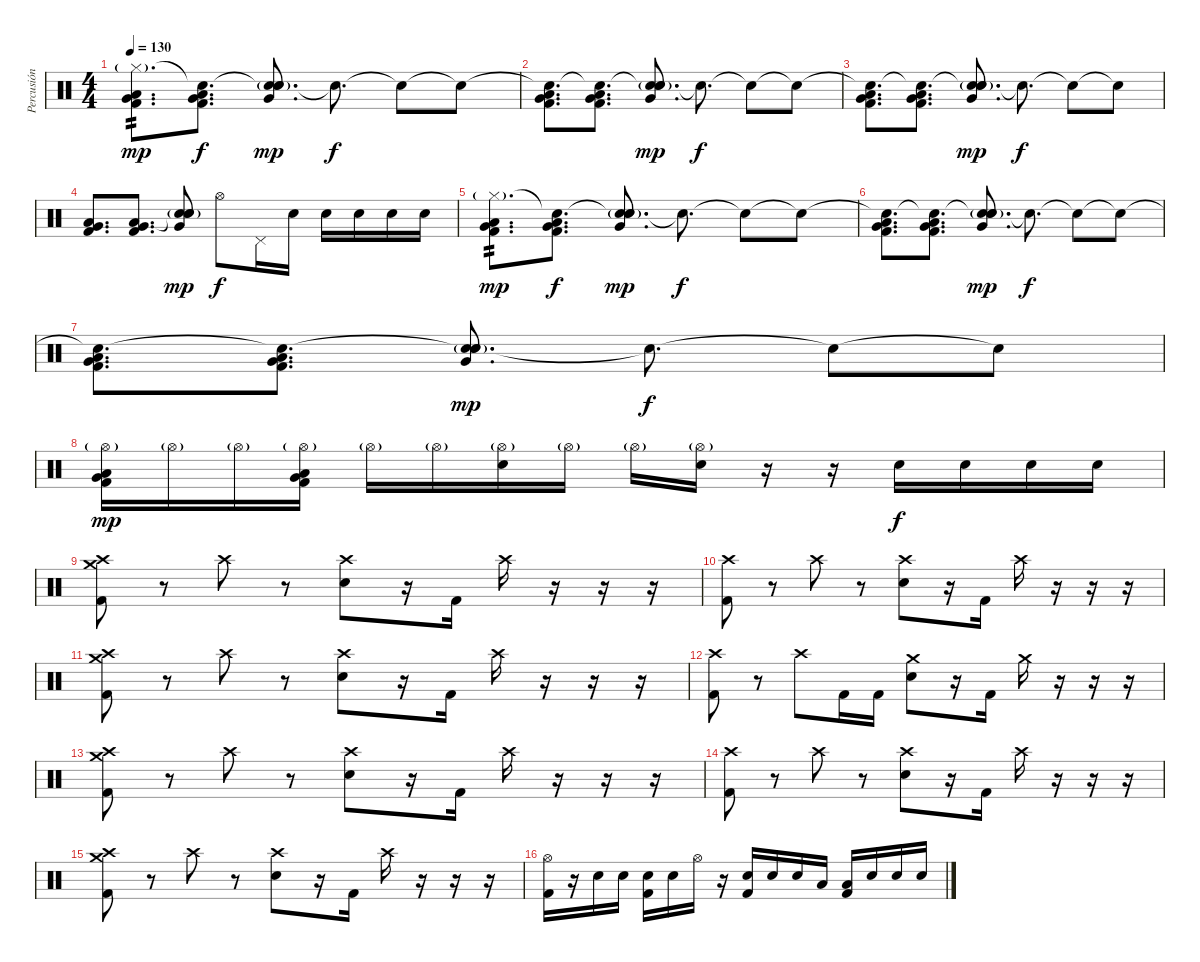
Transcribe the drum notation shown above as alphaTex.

\track ("Percusión" "Percusión") {instrument percussion}
\staff {score}
\articulation defaults
\ts (4 4)
\tempo 130
\clef neutral
\ks c
("Hi-Hat (closed)"{g} "Low Floor Tom (hit)" "Very Low Tom (hit)" "Kick (hit) 2").8{d tp 2 dy mp} ("Snare (hit)"{t} "Low Floor Tom (hit)" "Very Low Tom (hit)" "Kick (hit) 2").8{d dy f} ("Snare (hit)"{t} "Hand Clap (hit)"{g} "Very Low Tom (hit)" "Electric Snare (hit)").8{d dy mp} "Snare (hit)"{t}.8{d dy f} "Snare (hit)"{t}.8 "Snare (hit)"{t}.8 |
("Snare (hit)"{t} "Low Floor Tom (hit)" "Very Low Tom (hit)" "Kick (hit) 2").8{d} ("Snare (hit)"{t} "Low Floor Tom (hit)" "Very Low Tom (hit)" "Kick (hit) 2").8{d} ("Snare (hit)"{t} "Hand Clap (hit)"{g} "Very Low Tom (hit)" "Electric Snare (hit)").8{d dy mp} "Snare (hit)"{t}.8{d dy f} "Snare (hit)"{t}.8 "Snare (hit)"{t}.8 |
("Snare (hit)"{t} "Low Floor Tom (hit)" "Very Low Tom (hit)" "Kick (hit) 2").8{d} ("Snare (hit)"{t} "Low Floor Tom (hit)" "Very Low Tom (hit)" "Kick (hit) 2").8{d} ("Snare (hit)"{t} "Hand Clap (hit)"{g} "Very Low Tom (hit)" "Electric Snare (hit)").8{d dy mp} "Snare (hit)"{t}.8{d dy f} "Snare (hit)"{t}.8 "Snare (hit)"{t}.8 |
("Low Floor Tom (hit)" "Very Low Tom (hit)" "Kick (hit) 2").8{d} ("Low Floor Tom (hit)" "Very Low Tom (hit)" "Kick (hit) 2").8{d} ("Snare (hit)"{t} "Hand Clap (hit)"{g} "Very Low Tom (hit)" "Electric Snare (hit)").8{dy mp} "Hi-Hat (open)".8{dy f} "Pedal Hi-Hat (hit)".16 "Electric Snare (hit)".16 "Electric Snare (hit)".16 "Electric Snare (hit)".16 "Electric Snare (hit)".16 "Electric Snare (hit)".16 |
("Hi-Hat (closed)"{g} "Low Floor Tom (hit)" "Very Low Tom (hit)" "Kick (hit) 2").8{d tp 2 dy mp} ("Snare (hit)"{t} "Low Floor Tom (hit)" "Very Low Tom (hit)" "Kick (hit) 2").8{d dy f} ("Snare (hit)"{t} "Hand Clap (hit)"{g} "Very Low Tom (hit)" "Electric Snare (hit)").8{d dy mp} "Snare (hit)"{t}.8{d dy f} "Snare (hit)"{t}.8 "Snare (hit)"{t}.8 |
("Snare (hit)"{t} "Low Floor Tom (hit)" "Very Low Tom (hit)" "Kick (hit) 2").8{d} ("Snare (hit)"{t} "Low Floor Tom (hit)" "Very Low Tom (hit)" "Kick (hit) 2").8{d} ("Snare (hit)"{t} "Hand Clap (hit)"{g} "Very Low Tom (hit)" "Electric Snare (hit)").8{d dy mp} "Snare (hit)"{t}.8{d dy f} "Snare (hit)"{t}.8 "Snare (hit)"{t}.8 |
("Snare (hit)"{t} "Low Floor Tom (hit)" "Very Low Tom (hit)" "Kick (hit) 2").8{d} ("Snare (hit)"{t} "Low Floor Tom (hit)" "Very Low Tom (hit)" "Kick (hit) 2").8{d} ("Snare (hit)"{t} "Hand Clap (hit)"{g} "Very Low Tom (hit)" "Electric Snare (hit)").8{d dy mp} "Snare (hit)"{t}.8{d dy f} "Snare (hit)"{t}.8 "Snare (hit)"{t}.8 |
("Hi-Hat (open)"{g} "Low Floor Tom (hit)" "Very Low Tom (hit)" "Kick (hit) 2").16{dy mp} "Hi-Hat (open)"{g}.16 "Hi-Hat (open)"{g}.16 ("Hi-Hat (open)"{g} "Low Floor Tom (hit)" "Very Low Tom (hit)" "Kick (hit) 2").16 "Hi-Hat (open)"{g}.16 "Hi-Hat (open)"{g}.16 ("Hi-Hat (open)"{g} "Electric Snare (hit)").16 "Hi-Hat (open)"{g}.16 "Hi-Hat (open)"{g}.16 ("Hi-Hat (open)"{g} "Electric Snare (hit)").16 r.16 r.16 "Electric Snare (hit)".16{dy f} "Electric Snare (hit)".16 "Electric Snare (hit)".16 "Electric Snare (hit)".16 |
("Crash medium (hit)" "Crash high (hit)" "Kick (hit) 2").8 r.8 "Crash high (hit)".8 r.8 ("Crash high (hit)" "Electric Snare (hit)").8 r.16 "Kick (hit) 2".16 "Crash high (hit)".16 r.16 r.16 r.16 |
("Crash high (hit)" "Kick (hit) 2").8 r.8 "Crash high (hit)".8 r.8 ("Crash high (hit)" "Electric Snare (hit)").8 r.16 "Kick (hit) 2".16 "Crash high (hit)".16 r.16 r.16 r.16 |
("Crash medium (hit)" "Crash high (hit)" "Kick (hit) 2").8 r.8 "Crash high (hit)".8 r.8 ("Crash high (hit)" "Electric Snare (hit)").8 r.16 "Kick (hit) 2".16 "Crash high (hit)".16 r.16 r.16 r.16 |
("Crash high (hit)" "Kick (hit) 2").8 r.8 "Crash high (hit)".8 "Kick (hit) 2".16 "Kick (hit) 2".16 ("Crash medium (hit)" "Electric Snare (hit)").8 r.16 "Kick (hit) 2".16 "Crash medium (hit)".16 r.16 r.16 r.16 |
("Crash medium (hit)" "Crash high (hit)" "Kick (hit) 2").8 r.8 "Crash high (hit)".8 r.8 ("Crash high (hit)" "Electric Snare (hit)").8 r.16 "Kick (hit) 2".16 "Crash high (hit)".16 r.16 r.16 r.16 |
("Crash high (hit)" "Kick (hit) 2").8 r.8 "Crash high (hit)".8 r.8 ("Crash high (hit)" "Electric Snare (hit)").8 r.16 "Kick (hit) 2".16 "Crash high (hit)".16 r.16 r.16 r.16 |
("Crash medium (hit)" "Crash high (hit)" "Kick (hit) 2").8 r.8 "Crash high (hit)".8 r.8 ("Crash high (hit)" "Electric Snare (hit)").8 r.16 "Kick (hit) 2".16 "Crash high (hit)".16 r.16 r.16 r.16 |
("Hi-Hat (open)" "Kick (hit) 2").16 r.16 "Electric Snare (hit)".16 "Electric Snare (hit)".16 ("Electric Snare (hit)" "Kick (hit) 2").16 "Electric Snare (hit)".16 "Hi-Hat (open)".16 r.16 ("Electric Snare (hit)" "Kick (hit) 2").16 "Electric Snare (hit)".16 "Electric Snare (hit)".16 "Low Tom (hit)".16 ("Low Tom (hit)" "Kick (hit) 2").16 "Electric Snare (hit)".16 "Electric Snare (hit)".16 "Electric Snare (hit)".16
